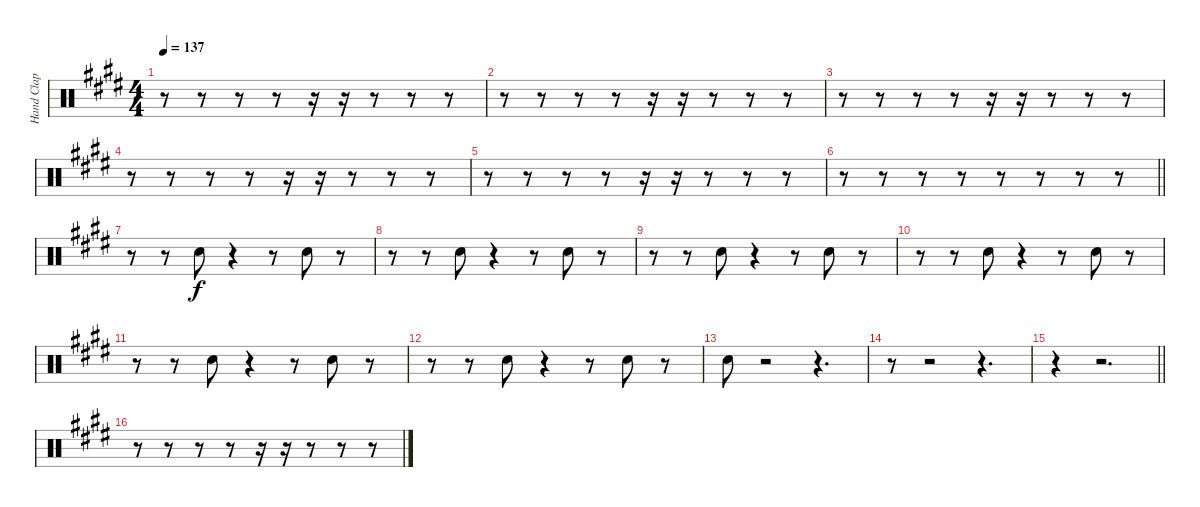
\track ("Hand Clap" "Hand Clap") {instrument percussion}
\staff {score}
\articulation defaults
\ts (4 4)
\tempo 137
\clef neutral
\ks e
r.8{dy f} r.8 r.8 r.8 r.16 r.16 r.8 r.8 r.8 |
r.8 r.8 r.8 r.8 r.16 r.16 r.8 r.8 r.8 |
r.8 r.8 r.8 r.8 r.16 r.16 r.8 r.8 r.8 |
r.8 r.8 r.8 r.8 r.16 r.16 r.8 r.8 r.8 |
r.8 r.8 r.8 r.8 r.16 r.16 r.8 r.8 r.8 |
\barLineRight lightlight
r.8 r.8 r.8 r.8 r.8 r.8 r.8 r.8 |
r.8 r.8 "Hand Clap (hit)".8 r.4 r.8 "Hand Clap (hit)".8 r.8 |
r.8 r.8 "Hand Clap (hit)".8 r.4 r.8 "Hand Clap (hit)".8 r.8 |
r.8 r.8 "Hand Clap (hit)".8 r.4 r.8 "Hand Clap (hit)".8 r.8 |
r.8 r.8 "Hand Clap (hit)".8 r.4 r.8 "Hand Clap (hit)".8 r.8 |
r.8 r.8 "Hand Clap (hit)".8 r.4 r.8 "Hand Clap (hit)".8 r.8 |
r.8 r.8 "Hand Clap (hit)".8 r.4 r.8 "Hand Clap (hit)".8 r.8 |
"Hand Clap (hit)".8 r.2 r.4{d} |
r.8 r.2 r.4{d} |
\barLineRight lightlight
r.4 r.2{d} |
r.8 r.8 r.8 r.8 r.16 r.16 r.8 r.8 r.8
